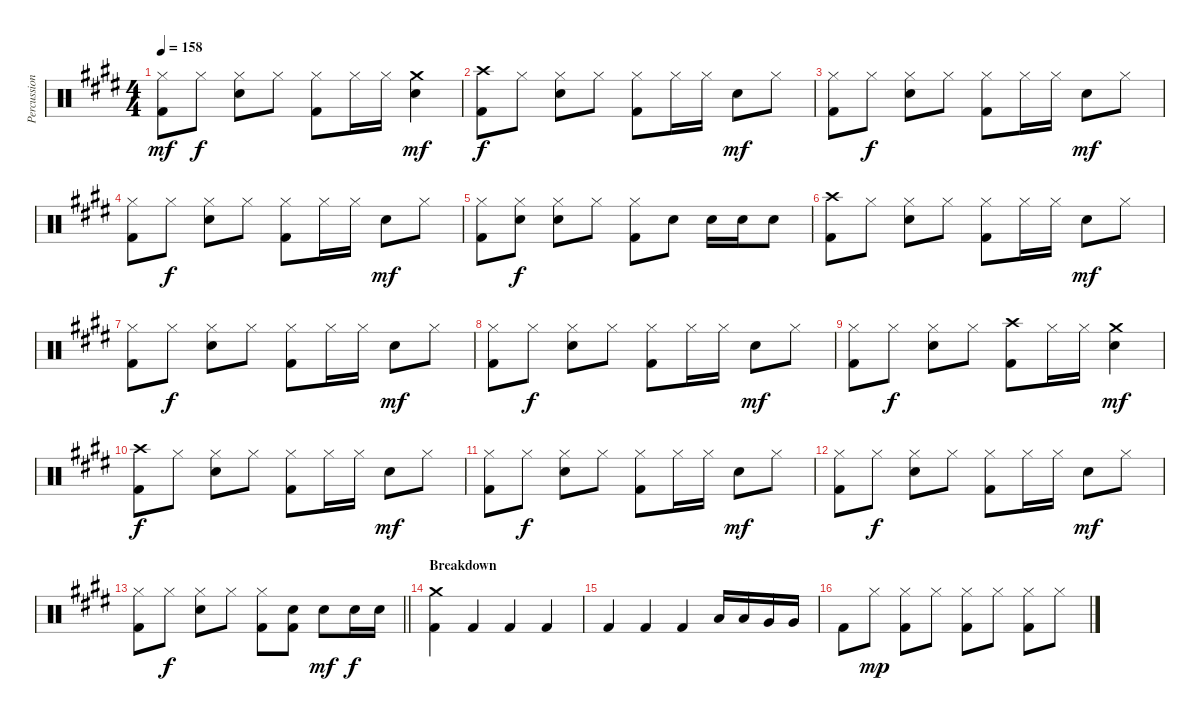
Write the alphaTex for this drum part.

\track ("Percussion" "Percussion") {instrument percussion}
\staff {score}
\articulation defaults
\ts (4 4)
\tempo 158
\clef neutral
\ks e
("Hi-Hat (closed)" "Kick (hit) 2").8{dy mf} "Hi-Hat (closed)".8{dy f} ("Hi-Hat (closed)" "Snare (hit) 2").8 "Hi-Hat (closed)".8 ("Hi-Hat (closed)" "Kick (hit) 2").8 "Hi-Hat (closed)".16 "Hi-Hat (closed)".16 ("Crash medium (hit)" "Snare (hit) 2").4{dy mf} |
("Crash high (hit)" "Kick (hit) 2").8{dy f} "Hi-Hat (closed)".8 ("Hi-Hat (closed)" "Snare (hit) 2").8 "Hi-Hat (closed)".8 ("Hi-Hat (closed)" "Kick (hit) 2").8 "Hi-Hat (closed)".16 "Hi-Hat (closed)".16 "Snare (hit) 2".8{dy mf} "Hi-Hat (closed)".8 |
("Hi-Hat (closed)" "Kick (hit) 2").8 "Hi-Hat (closed)".8{dy f} ("Hi-Hat (closed)" "Snare (hit) 2").8 "Hi-Hat (closed)".8 ("Hi-Hat (closed)" "Kick (hit) 2").8 "Hi-Hat (closed)".16 "Hi-Hat (closed)".16 "Snare (hit) 2".8{dy mf} "Hi-Hat (closed)".8 |
("Hi-Hat (closed)" "Kick (hit) 2").8 "Hi-Hat (closed)".8{dy f} ("Hi-Hat (closed)" "Snare (hit) 2").8 "Hi-Hat (closed)".8 ("Hi-Hat (closed)" "Kick (hit) 2").8 "Hi-Hat (closed)".16 "Hi-Hat (closed)".16 "Snare (hit) 2".8{dy mf} "Hi-Hat (closed)".8 |
("Hi-Hat (closed)" "Kick (hit) 2").8 ("Hi-Hat (closed)" "Snare (hit) 2").8{dy f} ("Hi-Hat (closed)" "Snare (hit) 2").8 "Hi-Hat (closed)".8 ("Hi-Hat (closed)" "Kick (hit) 2").8 "Snare (hit) 2".8 "Snare (hit) 2".16 "Snare (hit) 2".16 "Snare (hit) 2".8 |
("Crash high (hit)" "Kick (hit) 2").8 "Hi-Hat (closed)".8 ("Hi-Hat (closed)" "Snare (hit) 2").8 "Hi-Hat (closed)".8 ("Hi-Hat (closed)" "Kick (hit) 2").8 "Hi-Hat (closed)".16 "Hi-Hat (closed)".16 "Snare (hit) 2".8{dy mf} "Hi-Hat (closed)".8 |
("Hi-Hat (closed)" "Kick (hit) 2").8 "Hi-Hat (closed)".8{dy f} ("Hi-Hat (closed)" "Snare (hit) 2").8 "Hi-Hat (closed)".8 ("Hi-Hat (closed)" "Kick (hit) 2").8 "Hi-Hat (closed)".16 "Hi-Hat (closed)".16 "Snare (hit) 2".8{dy mf} "Hi-Hat (closed)".8 |
("Hi-Hat (closed)" "Kick (hit) 2").8 "Hi-Hat (closed)".8{dy f} ("Hi-Hat (closed)" "Snare (hit) 2").8 "Hi-Hat (closed)".8 ("Hi-Hat (closed)" "Kick (hit) 2").8 "Hi-Hat (closed)".16 "Hi-Hat (closed)".16 "Snare (hit) 2".8{dy mf} "Hi-Hat (closed)".8 |
("Hi-Hat (closed)" "Kick (hit) 2").8 "Hi-Hat (closed)".8{dy f} ("Hi-Hat (closed)" "Snare (hit) 2").8 "Hi-Hat (closed)".8 ("Crash high (hit)" "Kick (hit) 2").8 "Hi-Hat (closed)".16 "Hi-Hat (closed)".16 ("Crash medium (hit)" "Snare (hit) 2").4{dy mf} |
("Crash high (hit)" "Kick (hit) 2").8{dy f} "Hi-Hat (closed)".8 ("Hi-Hat (closed)" "Snare (hit) 2").8 "Hi-Hat (closed)".8 ("Hi-Hat (closed)" "Kick (hit) 2").8 "Hi-Hat (closed)".16 "Hi-Hat (closed)".16 "Snare (hit) 2".8{dy mf} "Hi-Hat (closed)".8 |
("Hi-Hat (closed)" "Kick (hit) 2").8 "Hi-Hat (closed)".8{dy f} ("Hi-Hat (closed)" "Snare (hit) 2").8 "Hi-Hat (closed)".8 ("Hi-Hat (closed)" "Kick (hit) 2").8 "Hi-Hat (closed)".16 "Hi-Hat (closed)".16 "Snare (hit) 2".8{dy mf} "Hi-Hat (closed)".8 |
("Hi-Hat (closed)" "Kick (hit) 2").8 "Hi-Hat (closed)".8{dy f} ("Hi-Hat (closed)" "Snare (hit) 2").8 "Hi-Hat (closed)".8 ("Hi-Hat (closed)" "Kick (hit) 2").8 "Hi-Hat (closed)".16 "Hi-Hat (closed)".16 "Snare (hit) 2".8{dy mf} "Hi-Hat (closed)".8 |
\barLineRight lightlight
("Hi-Hat (closed)" "Kick (hit) 2").8 "Hi-Hat (closed)".8{dy f} ("Hi-Hat (closed)" "Snare (hit) 2").8 "Hi-Hat (closed)".8 ("Hi-Hat (closed)" "Kick (hit) 2").8 ("Snare (hit) 2" "Kick (hit) 2").8 "Snare (hit) 2".8{dy mf} "Snare (hit) 2".16{dy f} "Snare (hit) 2".16 |
\section ("" "Breakdown")
("Crash medium (hit)" "Kick (hit) 2").4 "Kick (hit) 2".4 "Kick (hit) 2".4 "Kick (hit) 2".4 |
"Kick (hit) 2".4 "Kick (hit) 2".4 "Kick (hit) 2".4 "Low Tom (hit)".16 "Low Tom (hit)".16 "Very Low Tom (hit)".16 "Very Low Tom (hit)".16 |
"Kick (hit) 2".8 "Hi-Hat (closed)".8{dy mp} ("Hi-Hat (closed)" "Kick (hit) 2").8 "Hi-Hat (closed)".8 ("Hi-Hat (closed)" "Kick (hit) 2").8 "Hi-Hat (closed)".8 ("Hi-Hat (closed)" "Kick (hit) 2").8 "Hi-Hat (closed)".8
